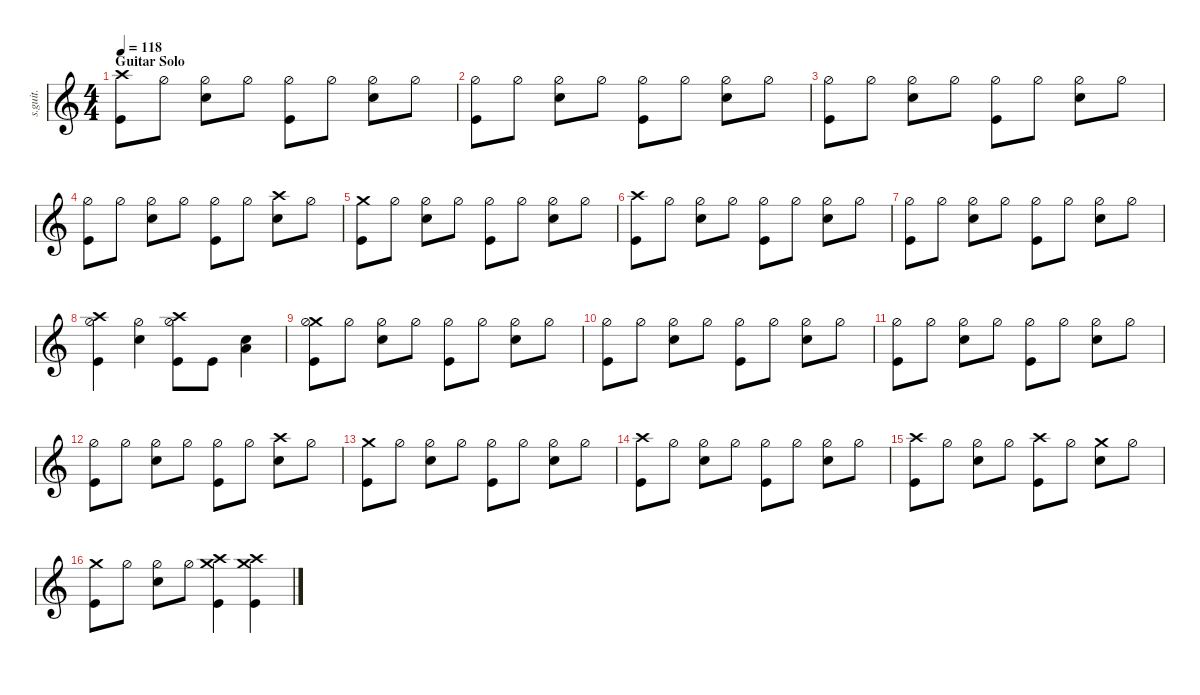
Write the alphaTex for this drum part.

\defaultSystemsLayout 4
\hideDynamics
\bracketExtendMode nobrackets
\track ("Drums [Arin Ilejay]" "s.guit.") {instrument percussion}
\staff {score}
\articulation defaults
\ts (4 4)
\section ("" "Guitar Solo")
\tempo 118
\clef g2
\ks c
("Crash high (hit)" "Kick (hit)").8{lyrics (0 "") lyrics (1 "") lyrics (2 "") lyrics (3 "") lyrics (4 "") dy mp} "Hi-Hat (half)".8{lyrics (0 "") lyrics (1 "") lyrics (2 "") lyrics (3 "") lyrics (4 "")} ("Hi-Hat (half)" "Snare (hit) 2").8{lyrics (0 "") lyrics (1 "") lyrics (2 "") lyrics (3 "") lyrics (4 "")} "Hi-Hat (half)".8{lyrics (0 "") lyrics (1 "") lyrics (2 "") lyrics (3 "") lyrics (4 "")} ("Hi-Hat (half)" "Kick (hit)").8{lyrics (0 "") lyrics (1 "") lyrics (2 "") lyrics (3 "") lyrics (4 "")} "Hi-Hat (half)".8{lyrics (0 "") lyrics (1 "") lyrics (2 "") lyrics (3 "") lyrics (4 "")} ("Hi-Hat (half)" "Snare (hit) 2").8{lyrics (0 "") lyrics (1 "") lyrics (2 "") lyrics (3 "") lyrics (4 "")} "Hi-Hat (half)".8{lyrics (0 "") lyrics (1 "") lyrics (2 "") lyrics (3 "") lyrics (4 "")} |
("Hi-Hat (half)" "Kick (hit)").8{lyrics (0 "") lyrics (1 "") lyrics (2 "") lyrics (3 "") lyrics (4 "")} "Hi-Hat (half)".8{lyrics (0 "") lyrics (1 "") lyrics (2 "") lyrics (3 "") lyrics (4 "")} ("Hi-Hat (half)" "Snare (hit) 2").8{lyrics (0 "") lyrics (1 "") lyrics (2 "") lyrics (3 "") lyrics (4 "")} "Hi-Hat (half)".8{lyrics (0 "") lyrics (1 "") lyrics (2 "") lyrics (3 "") lyrics (4 "")} ("Hi-Hat (half)" "Kick (hit)").8{lyrics (0 "") lyrics (1 "") lyrics (2 "") lyrics (3 "") lyrics (4 "")} "Hi-Hat (half)".8{lyrics (0 "") lyrics (1 "") lyrics (2 "") lyrics (3 "") lyrics (4 "")} ("Hi-Hat (half)" "Snare (hit) 2").8{lyrics (0 "") lyrics (1 "") lyrics (2 "") lyrics (3 "") lyrics (4 "")} "Hi-Hat (half)".8{lyrics (0 "") lyrics (1 "") lyrics (2 "") lyrics (3 "") lyrics (4 "")} |
("Hi-Hat (half)" "Kick (hit)").8{lyrics (0 "") lyrics (1 "") lyrics (2 "") lyrics (3 "") lyrics (4 "")} "Hi-Hat (half)".8{lyrics (0 "") lyrics (1 "") lyrics (2 "") lyrics (3 "") lyrics (4 "")} ("Hi-Hat (half)" "Snare (hit) 2").8{lyrics (0 "") lyrics (1 "") lyrics (2 "") lyrics (3 "") lyrics (4 "")} "Hi-Hat (half)".8{lyrics (0 "") lyrics (1 "") lyrics (2 "") lyrics (3 "") lyrics (4 "")} ("Hi-Hat (half)" "Kick (hit)").8{lyrics (0 "") lyrics (1 "") lyrics (2 "") lyrics (3 "") lyrics (4 "")} "Hi-Hat (half)".8{lyrics (0 "") lyrics (1 "") lyrics (2 "") lyrics (3 "") lyrics (4 "")} ("Hi-Hat (half)" "Snare (hit) 2").8{lyrics (0 "") lyrics (1 "") lyrics (2 "") lyrics (3 "") lyrics (4 "")} "Hi-Hat (half)".8{lyrics (0 "") lyrics (1 "") lyrics (2 "") lyrics (3 "") lyrics (4 "")} |
("Hi-Hat (half)" "Kick (hit)").8{lyrics (0 "") lyrics (1 "") lyrics (2 "") lyrics (3 "") lyrics (4 "")} "Hi-Hat (half)".8{lyrics (0 "") lyrics (1 "") lyrics (2 "") lyrics (3 "") lyrics (4 "")} ("Hi-Hat (half)" "Snare (hit) 2").8{lyrics (0 "") lyrics (1 "") lyrics (2 "") lyrics (3 "") lyrics (4 "")} "Hi-Hat (half)".8{lyrics (0 "") lyrics (1 "") lyrics (2 "") lyrics (3 "") lyrics (4 "")} ("Hi-Hat (half)" "Kick (hit)").8{lyrics (0 "") lyrics (1 "") lyrics (2 "") lyrics (3 "") lyrics (4 "")} "Hi-Hat (half)".8{lyrics (0 "") lyrics (1 "") lyrics (2 "") lyrics (3 "") lyrics (4 "")} ("Crash high (hit)" "Snare (hit) 2").8{lyrics (0 "") lyrics (1 "") lyrics (2 "") lyrics (3 "") lyrics (4 "")} "Hi-Hat (half)".8{lyrics (0 "") lyrics (1 "") lyrics (2 "") lyrics (3 "") lyrics (4 "")} |
("Crash medium (hit)" "Kick (hit)").8{lyrics (0 "") lyrics (1 "") lyrics (2 "") lyrics (3 "") lyrics (4 "")} "Hi-Hat (half)".8{lyrics (0 "") lyrics (1 "") lyrics (2 "") lyrics (3 "") lyrics (4 "")} ("Hi-Hat (half)" "Snare (hit) 2").8{lyrics (0 "") lyrics (1 "") lyrics (2 "") lyrics (3 "") lyrics (4 "")} "Hi-Hat (half)".8{lyrics (0 "") lyrics (1 "") lyrics (2 "") lyrics (3 "") lyrics (4 "")} ("Hi-Hat (half)" "Kick (hit)").8{lyrics (0 "") lyrics (1 "") lyrics (2 "") lyrics (3 "") lyrics (4 "")} "Hi-Hat (half)".8{lyrics (0 "") lyrics (1 "") lyrics (2 "") lyrics (3 "") lyrics (4 "")} ("Hi-Hat (half)" "Snare (hit) 2").8{lyrics (0 "") lyrics (1 "") lyrics (2 "") lyrics (3 "") lyrics (4 "")} "Hi-Hat (half)".8{lyrics (0 "") lyrics (1 "") lyrics (2 "") lyrics (3 "") lyrics (4 "")} |
("Crash high (hit)" "Kick (hit)").8{lyrics (0 "") lyrics (1 "") lyrics (2 "") lyrics (3 "") lyrics (4 "")} "Hi-Hat (half)".8{lyrics (0 "") lyrics (1 "") lyrics (2 "") lyrics (3 "") lyrics (4 "")} ("Hi-Hat (half)" "Snare (hit) 2").8{lyrics (0 "") lyrics (1 "") lyrics (2 "") lyrics (3 "") lyrics (4 "")} "Hi-Hat (half)".8{lyrics (0 "") lyrics (1 "") lyrics (2 "") lyrics (3 "") lyrics (4 "")} ("Hi-Hat (half)" "Kick (hit)").8{lyrics (0 "") lyrics (1 "") lyrics (2 "") lyrics (3 "") lyrics (4 "")} "Hi-Hat (half)".8{lyrics (0 "") lyrics (1 "") lyrics (2 "") lyrics (3 "") lyrics (4 "")} ("Hi-Hat (half)" "Snare (hit) 2").8{lyrics (0 "") lyrics (1 "") lyrics (2 "") lyrics (3 "") lyrics (4 "")} "Hi-Hat (half)".8{lyrics (0 "") lyrics (1 "") lyrics (2 "") lyrics (3 "") lyrics (4 "")} |
("Hi-Hat (half)" "Kick (hit)").8{lyrics (0 "") lyrics (1 "") lyrics (2 "") lyrics (3 "") lyrics (4 "")} "Hi-Hat (half)".8{lyrics (0 "") lyrics (1 "") lyrics (2 "") lyrics (3 "") lyrics (4 "")} ("Hi-Hat (half)" "Snare (hit) 2").8{lyrics (0 "") lyrics (1 "") lyrics (2 "") lyrics (3 "") lyrics (4 "")} "Hi-Hat (half)".8{lyrics (0 "") lyrics (1 "") lyrics (2 "") lyrics (3 "") lyrics (4 "")} ("Hi-Hat (half)" "Kick (hit)").8{lyrics (0 "") lyrics (1 "") lyrics (2 "") lyrics (3 "") lyrics (4 "")} "Hi-Hat (half)".8{lyrics (0 "") lyrics (1 "") lyrics (2 "") lyrics (3 "") lyrics (4 "")} ("Hi-Hat (half)" "Snare (hit) 2").8{lyrics (0 "") lyrics (1 "") lyrics (2 "") lyrics (3 "") lyrics (4 "")} "Hi-Hat (half)".8{lyrics (0 "") lyrics (1 "") lyrics (2 "") lyrics (3 "") lyrics (4 "")} |
("Crash high (hit)" "Hi-Hat (half)" "Kick (hit)").4{lyrics (0 "") lyrics (1 "") lyrics (2 "") lyrics (3 "") lyrics (4 "")} ("Hi-Hat (half)" "Snare (hit) 2").4{lyrics (0 "") lyrics (1 "") lyrics (2 "") lyrics (3 "") lyrics (4 "")} ("Crash high (hit)" "Hi-Hat (half)" "Kick (hit)").8{lyrics (0 "") lyrics (1 "") lyrics (2 "") lyrics (3 "") lyrics (4 "")} "Kick (hit)".8{lyrics (0 "") lyrics (1 "") lyrics (2 "") lyrics (3 "") lyrics (4 "")} ("Snare (hit) 2" "Low Floor Tom (hit)").4{lyrics (0 "") lyrics (1 "") lyrics (2 "") lyrics (3 "") lyrics (4 "")} |
("Crash medium (hit)" "Hi-Hat (half)" "Kick (hit)").8{lyrics (0 "") lyrics (1 "") lyrics (2 "") lyrics (3 "") lyrics (4 "")} "Hi-Hat (half)".8{lyrics (0 "") lyrics (1 "") lyrics (2 "") lyrics (3 "") lyrics (4 "")} ("Hi-Hat (half)" "Snare (hit) 2").8{lyrics (0 "") lyrics (1 "") lyrics (2 "") lyrics (3 "") lyrics (4 "")} "Hi-Hat (half)".8{lyrics (0 "") lyrics (1 "") lyrics (2 "") lyrics (3 "") lyrics (4 "")} ("Hi-Hat (half)" "Kick (hit)").8{lyrics (0 "") lyrics (1 "") lyrics (2 "") lyrics (3 "") lyrics (4 "")} "Hi-Hat (half)".8{lyrics (0 "") lyrics (1 "") lyrics (2 "") lyrics (3 "") lyrics (4 "")} ("Hi-Hat (half)" "Snare (hit) 2").8{lyrics (0 "") lyrics (1 "") lyrics (2 "") lyrics (3 "") lyrics (4 "")} "Hi-Hat (half)".8{lyrics (0 "") lyrics (1 "") lyrics (2 "") lyrics (3 "") lyrics (4 "")} |
("Hi-Hat (half)" "Kick (hit)").8{lyrics (0 "") lyrics (1 "") lyrics (2 "") lyrics (3 "") lyrics (4 "")} "Hi-Hat (half)".8{lyrics (0 "") lyrics (1 "") lyrics (2 "") lyrics (3 "") lyrics (4 "")} ("Hi-Hat (half)" "Snare (hit) 2").8{lyrics (0 "") lyrics (1 "") lyrics (2 "") lyrics (3 "") lyrics (4 "")} "Hi-Hat (half)".8{lyrics (0 "") lyrics (1 "") lyrics (2 "") lyrics (3 "") lyrics (4 "")} ("Hi-Hat (half)" "Kick (hit)").8{lyrics (0 "") lyrics (1 "") lyrics (2 "") lyrics (3 "") lyrics (4 "")} "Hi-Hat (half)".8{lyrics (0 "") lyrics (1 "") lyrics (2 "") lyrics (3 "") lyrics (4 "")} ("Hi-Hat (half)" "Snare (hit) 2").8{lyrics (0 "") lyrics (1 "") lyrics (2 "") lyrics (3 "") lyrics (4 "")} "Hi-Hat (half)".8{lyrics (0 "") lyrics (1 "") lyrics (2 "") lyrics (3 "") lyrics (4 "")} |
("Hi-Hat (half)" "Kick (hit)").8{lyrics (0 "") lyrics (1 "") lyrics (2 "") lyrics (3 "") lyrics (4 "")} "Hi-Hat (half)".8{lyrics (0 "") lyrics (1 "") lyrics (2 "") lyrics (3 "") lyrics (4 "")} ("Hi-Hat (half)" "Snare (hit) 2").8{lyrics (0 "") lyrics (1 "") lyrics (2 "") lyrics (3 "") lyrics (4 "")} "Hi-Hat (half)".8{lyrics (0 "") lyrics (1 "") lyrics (2 "") lyrics (3 "") lyrics (4 "")} ("Hi-Hat (half)" "Kick (hit)").8{lyrics (0 "") lyrics (1 "") lyrics (2 "") lyrics (3 "") lyrics (4 "")} "Hi-Hat (half)".8{lyrics (0 "") lyrics (1 "") lyrics (2 "") lyrics (3 "") lyrics (4 "")} ("Hi-Hat (half)" "Snare (hit) 2").8{lyrics (0 "") lyrics (1 "") lyrics (2 "") lyrics (3 "") lyrics (4 "")} "Hi-Hat (half)".8{lyrics (0 "") lyrics (1 "") lyrics (2 "") lyrics (3 "") lyrics (4 "")} |
("Hi-Hat (half)" "Kick (hit)").8{lyrics (0 "") lyrics (1 "") lyrics (2 "") lyrics (3 "") lyrics (4 "")} "Hi-Hat (half)".8{lyrics (0 "") lyrics (1 "") lyrics (2 "") lyrics (3 "") lyrics (4 "")} ("Hi-Hat (half)" "Snare (hit) 2").8{lyrics (0 "") lyrics (1 "") lyrics (2 "") lyrics (3 "") lyrics (4 "")} "Hi-Hat (half)".8{lyrics (0 "") lyrics (1 "") lyrics (2 "") lyrics (3 "") lyrics (4 "")} ("Hi-Hat (half)" "Kick (hit)").8{lyrics (0 "") lyrics (1 "") lyrics (2 "") lyrics (3 "") lyrics (4 "")} "Hi-Hat (half)".8{lyrics (0 "") lyrics (1 "") lyrics (2 "") lyrics (3 "") lyrics (4 "")} ("Crash high (hit)" "Snare (hit) 2").8{lyrics (0 "") lyrics (1 "") lyrics (2 "") lyrics (3 "") lyrics (4 "")} "Hi-Hat (half)".8{lyrics (0 "") lyrics (1 "") lyrics (2 "") lyrics (3 "") lyrics (4 "")} |
("Crash medium (hit)" "Kick (hit)").8{lyrics (0 "") lyrics (1 "") lyrics (2 "") lyrics (3 "") lyrics (4 "")} "Hi-Hat (half)".8{lyrics (0 "") lyrics (1 "") lyrics (2 "") lyrics (3 "") lyrics (4 "")} ("Hi-Hat (half)" "Snare (hit) 2").8{lyrics (0 "") lyrics (1 "") lyrics (2 "") lyrics (3 "") lyrics (4 "")} "Hi-Hat (half)".8{lyrics (0 "") lyrics (1 "") lyrics (2 "") lyrics (3 "") lyrics (4 "")} ("Hi-Hat (half)" "Kick (hit)").8{lyrics (0 "") lyrics (1 "") lyrics (2 "") lyrics (3 "") lyrics (4 "")} "Hi-Hat (half)".8{lyrics (0 "") lyrics (1 "") lyrics (2 "") lyrics (3 "") lyrics (4 "")} ("Hi-Hat (half)" "Snare (hit) 2").8{lyrics (0 "") lyrics (1 "") lyrics (2 "") lyrics (3 "") lyrics (4 "")} "Hi-Hat (half)".8{lyrics (0 "") lyrics (1 "") lyrics (2 "") lyrics (3 "") lyrics (4 "")} |
("Crash high (hit)" "Kick (hit)").8{lyrics (0 "") lyrics (1 "") lyrics (2 "") lyrics (3 "") lyrics (4 "")} "Hi-Hat (half)".8{lyrics (0 "") lyrics (1 "") lyrics (2 "") lyrics (3 "") lyrics (4 "")} ("Hi-Hat (half)" "Snare (hit) 2").8{lyrics (0 "") lyrics (1 "") lyrics (2 "") lyrics (3 "") lyrics (4 "")} "Hi-Hat (half)".8{lyrics (0 "") lyrics (1 "") lyrics (2 "") lyrics (3 "") lyrics (4 "")} ("Hi-Hat (half)" "Kick (hit)").8{lyrics (0 "") lyrics (1 "") lyrics (2 "") lyrics (3 "") lyrics (4 "")} "Hi-Hat (half)".8{lyrics (0 "") lyrics (1 "") lyrics (2 "") lyrics (3 "") lyrics (4 "")} ("Hi-Hat (half)" "Snare (hit) 2").8{lyrics (0 "") lyrics (1 "") lyrics (2 "") lyrics (3 "") lyrics (4 "")} "Hi-Hat (half)".8{lyrics (0 "") lyrics (1 "") lyrics (2 "") lyrics (3 "") lyrics (4 "")} |
("Crash high (hit)" "Kick (hit)").8{lyrics (0 "") lyrics (1 "") lyrics (2 "") lyrics (3 "") lyrics (4 "")} "Hi-Hat (half)".8{lyrics (0 "") lyrics (1 "") lyrics (2 "") lyrics (3 "") lyrics (4 "")} ("Hi-Hat (half)" "Snare (hit) 2").8{lyrics (0 "") lyrics (1 "") lyrics (2 "") lyrics (3 "") lyrics (4 "")} "Hi-Hat (half)".8{lyrics (0 "") lyrics (1 "") lyrics (2 "") lyrics (3 "") lyrics (4 "")} ("Crash high (hit)" "Kick (hit)").8{lyrics (0 "") lyrics (1 "") lyrics (2 "") lyrics (3 "") lyrics (4 "")} "Hi-Hat (half)".8{lyrics (0 "") lyrics (1 "") lyrics (2 "") lyrics (3 "") lyrics (4 "")} ("Crash medium (hit)" "Snare (hit) 2").8{lyrics (0 "") lyrics (1 "") lyrics (2 "") lyrics (3 "") lyrics (4 "")} "Hi-Hat (half)".8{lyrics (0 "") lyrics (1 "") lyrics (2 "") lyrics (3 "") lyrics (4 "")} |
("Crash medium (hit)" "Kick (hit)").8{lyrics (0 "") lyrics (1 "") lyrics (2 "") lyrics (3 "") lyrics (4 "")} "Hi-Hat (half)".8{lyrics (0 "") lyrics (1 "") lyrics (2 "") lyrics (3 "") lyrics (4 "")} ("Hi-Hat (half)" "Snare (hit) 2").8{lyrics (0 "") lyrics (1 "") lyrics (2 "") lyrics (3 "") lyrics (4 "")} "Hi-Hat (half)".8{lyrics (0 "") lyrics (1 "") lyrics (2 "") lyrics (3 "") lyrics (4 "")} ("Crash high (hit)" "Crash medium (hit)" "Kick (hit)").4{lyrics (0 "") lyrics (1 "") lyrics (2 "") lyrics (3 "") lyrics (4 "")} ("Crash high (hit)" "Crash medium (hit)" "Kick (hit)").4{lyrics (0 "") lyrics (1 "") lyrics (2 "") lyrics (3 "") lyrics (4 "")}
